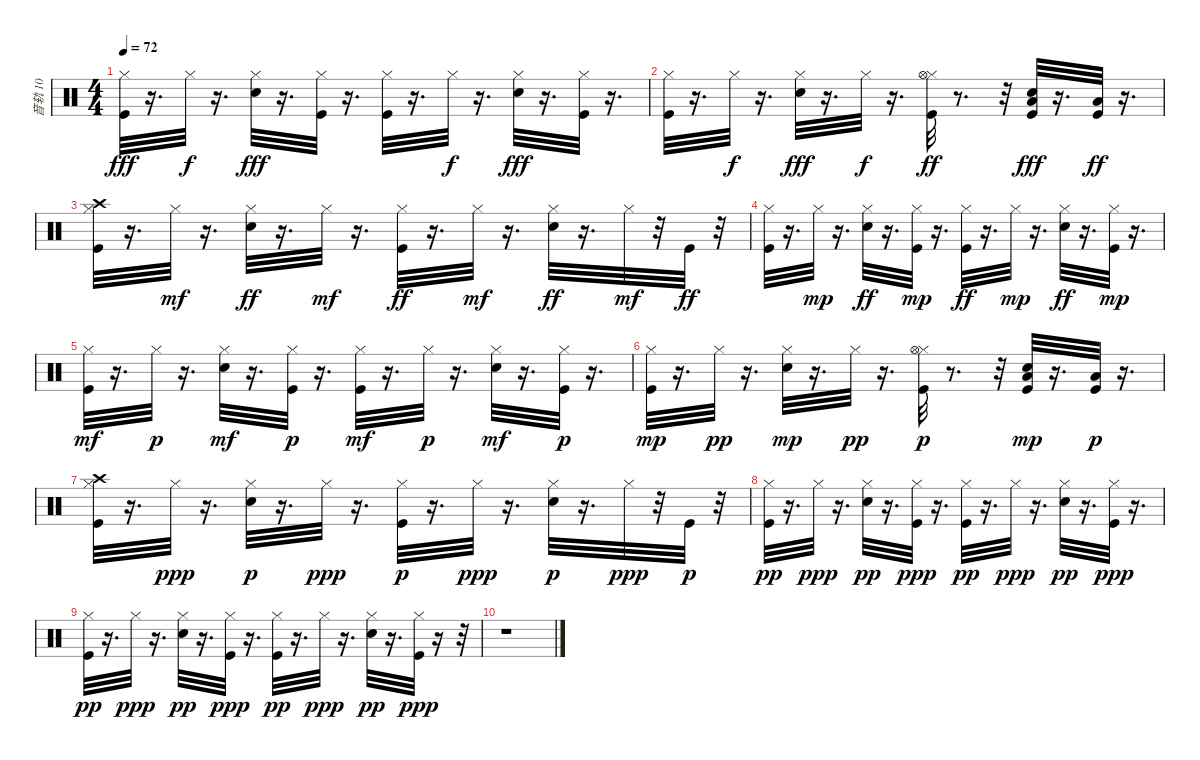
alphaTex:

\track ("音轨 10" "音轨 10") {instrument percussion}
\staff {score}
\articulation defaults
\ts (4 4)
\tempo 72
\clef neutral
\ks c
("Kick (hit)" "Hi-Hat (closed)").32{dy fff} r.16{d} "Hi-Hat (closed)".32{dy f} r.16{d} ("Electric Snare (hit)" "Hi-Hat (closed)").32{dy fff} r.16{d} ("Kick (hit)" "Hi-Hat (closed)").32 r.16{d} ("Kick (hit)" "Hi-Hat (closed)").32 r.16{d} "Hi-Hat (closed)".32{dy f} r.16{d} ("Electric Snare (hit)" "Hi-Hat (closed)").32{dy fff} r.16{d} ("Kick (hit)" "Hi-Hat (closed)").32 r.16{d} |
("Kick (hit)" "Hi-Hat (closed)").32 r.16{d} "Hi-Hat (closed)".32{dy f} r.16{d} ("Electric Snare (hit)" "Hi-Hat (closed)").32{dy fff} r.16{d} "Hi-Hat (closed)".32{dy f} r.16{d} ("Kick (hit)" "Hi-Hat (closed)" "Hi-Hat (open)").32{dy ff} r.8{d} r.32 ("Kick (hit)" "Electric Snare (hit)" "Low Tom (hit)").32{dy fff} r.16{d} ("Kick (hit)" "Low Tom (hit)").32{dy ff} r.16{d} |
("Kick (hit)" "Hi-Hat (closed)" "Crash high (hit)").32 r.16{d} "Hi-Hat (closed)".32{dy mf} r.16{d} ("Electric Snare (hit)" "Hi-Hat (closed)").32{dy ff} r.16{d} "Hi-Hat (closed)".32{dy mf} r.16{d} ("Kick (hit)" "Hi-Hat (closed)").32{dy ff} r.16{d} "Hi-Hat (closed)".32{dy mf} r.16{d} ("Electric Snare (hit)" "Hi-Hat (closed)").32{dy ff} r.16{d} "Hi-Hat (closed)".32{dy mf} r.32 "Kick (hit)".32{dy ff} r.32 |
("Kick (hit)" "Hi-Hat (closed)").32 r.16{d} "Hi-Hat (closed)".32{dy mp} r.16{d} ("Electric Snare (hit)" "Hi-Hat (closed)").32{dy ff} r.16{d} ("Kick (hit)" "Hi-Hat (closed)").32{dy mp} r.16{d} ("Kick (hit)" "Hi-Hat (closed)").32{dy ff} r.16{d} "Hi-Hat (closed)".32{dy mp} r.16{d} ("Electric Snare (hit)" "Hi-Hat (closed)").32{dy ff} r.16{d} ("Kick (hit)" "Hi-Hat (closed)").32{dy mp} r.16{d} |
("Kick (hit)" "Hi-Hat (closed)").32{dy mf} r.16{d} "Hi-Hat (closed)".32{dy p} r.16{d} ("Electric Snare (hit)" "Hi-Hat (closed)").32{dy mf} r.16{d} ("Kick (hit)" "Hi-Hat (closed)").32{dy p} r.16{d} ("Kick (hit)" "Hi-Hat (closed)").32{dy mf} r.16{d} "Hi-Hat (closed)".32{dy p} r.16{d} ("Electric Snare (hit)" "Hi-Hat (closed)").32{dy mf} r.16{d} ("Kick (hit)" "Hi-Hat (closed)").32{dy p} r.16{d} |
("Kick (hit)" "Hi-Hat (closed)").32{dy mp} r.16{d} "Hi-Hat (closed)".32{dy pp} r.16{d} ("Electric Snare (hit)" "Hi-Hat (closed)").32{dy mp} r.16{d} "Hi-Hat (closed)".32{dy pp} r.16{d} ("Kick (hit)" "Hi-Hat (closed)" "Hi-Hat (open)").32{dy p} r.8{d} r.32 ("Kick (hit)" "Electric Snare (hit)" "Low Tom (hit)").32{dy mp} r.16{d} ("Kick (hit)" "Low Tom (hit)").32{dy p} r.16{d} |
("Kick (hit)" "Hi-Hat (closed)" "Crash high (hit)").32 r.16{d} "Hi-Hat (closed)".32{dy ppp} r.16{d} ("Electric Snare (hit)" "Hi-Hat (closed)").32{dy p} r.16{d} "Hi-Hat (closed)".32{dy ppp} r.16{d} ("Kick (hit)" "Hi-Hat (closed)").32{dy p} r.16{d} "Hi-Hat (closed)".32{dy ppp} r.16{d} ("Electric Snare (hit)" "Hi-Hat (closed)").32{dy p} r.16{d} "Hi-Hat (closed)".32{dy ppp} r.32 "Kick (hit)".32{dy p} r.32 |
("Kick (hit)" "Hi-Hat (closed)").32{dy pp} r.16{d} "Hi-Hat (closed)".32{dy ppp} r.16{d} ("Electric Snare (hit)" "Hi-Hat (closed)").32{dy pp} r.16{d} ("Kick (hit)" "Hi-Hat (closed)").32{dy ppp} r.16{d} ("Kick (hit)" "Hi-Hat (closed)").32{dy pp} r.16{d} "Hi-Hat (closed)".32{dy ppp} r.16{d} ("Electric Snare (hit)" "Hi-Hat (closed)").32{dy pp} r.16{d} ("Kick (hit)" "Hi-Hat (closed)").32{dy ppp} r.16{d} |
("Kick (hit)" "Hi-Hat (closed)").32{dy pp} r.16{d} "Hi-Hat (closed)".32{dy ppp} r.16{d} ("Electric Snare (hit)" "Hi-Hat (closed)").32{dy pp} r.16{d} ("Kick (hit)" "Hi-Hat (closed)").32{dy ppp} r.16{d} ("Kick (hit)" "Hi-Hat (closed)").32{dy pp} r.16{d} "Hi-Hat (closed)".32{dy ppp} r.16{d} ("Electric Snare (hit)" "Hi-Hat (closed)").32{dy pp} r.16{d} ("Kick (hit)" "Hi-Hat (closed)").32{dy ppp} r.16 r.32 |
r.1
